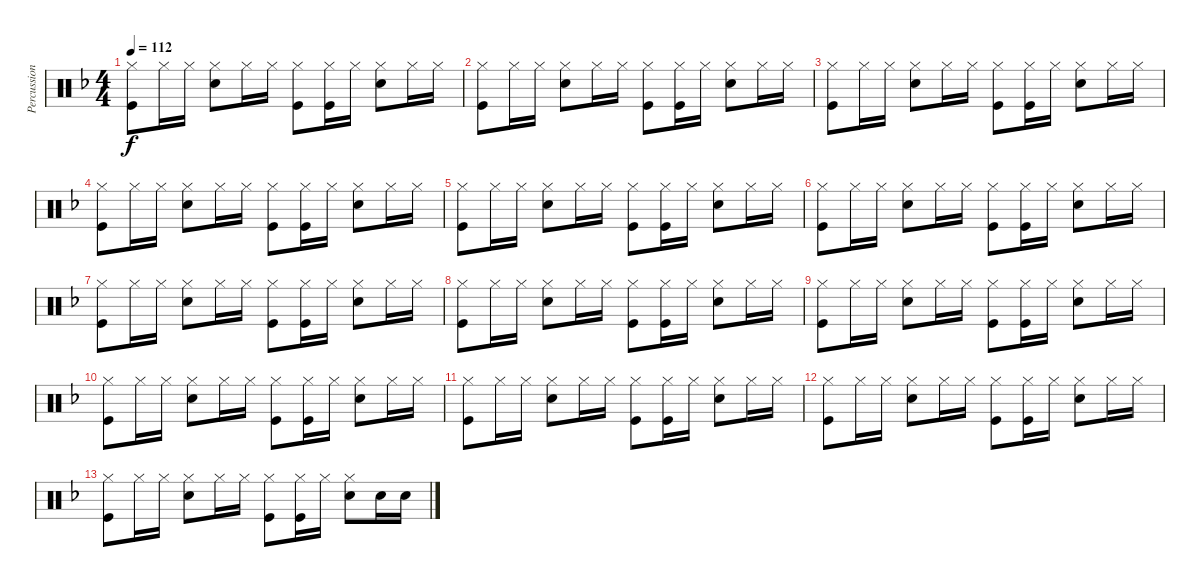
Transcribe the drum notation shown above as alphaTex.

\track ("Percussion" "Percussion") {instrument percussion}
\staff {score}
\articulation defaults
\ts (4 4)
\tempo 112
\clef neutral
\ks f
("Hi-Hat (closed)" "Kick (hit)").8{dy f} "Hi-Hat (closed)".16 "Hi-Hat (closed)".16 ("Hi-Hat (closed)" "Snare (hit) 2").8 "Hi-Hat (closed)".16 "Hi-Hat (closed)".16 ("Hi-Hat (closed)" "Kick (hit)").8 ("Hi-Hat (closed)" "Kick (hit)").16 "Hi-Hat (closed)".16 ("Hi-Hat (closed)" "Snare (hit) 2").8 "Hi-Hat (closed)".16 "Hi-Hat (closed)".16 |
("Hi-Hat (closed)" "Kick (hit)").8 "Hi-Hat (closed)".16 "Hi-Hat (closed)".16 ("Hi-Hat (closed)" "Snare (hit) 2").8 "Hi-Hat (closed)".16 "Hi-Hat (closed)".16 ("Hi-Hat (closed)" "Kick (hit)").8 ("Hi-Hat (closed)" "Kick (hit)").16 "Hi-Hat (closed)".16 ("Hi-Hat (closed)" "Snare (hit) 2").8 "Hi-Hat (closed)".16 "Hi-Hat (closed)".16 |
("Hi-Hat (closed)" "Kick (hit)").8 "Hi-Hat (closed)".16 "Hi-Hat (closed)".16 ("Hi-Hat (closed)" "Snare (hit) 2").8 "Hi-Hat (closed)".16 "Hi-Hat (closed)".16 ("Hi-Hat (closed)" "Kick (hit)").8 ("Hi-Hat (closed)" "Kick (hit)").16 "Hi-Hat (closed)".16 ("Hi-Hat (closed)" "Snare (hit) 2").8 "Hi-Hat (closed)".16 "Hi-Hat (closed)".16 |
("Hi-Hat (closed)" "Kick (hit)").8 "Hi-Hat (closed)".16 "Hi-Hat (closed)".16 ("Hi-Hat (closed)" "Snare (hit) 2").8 "Hi-Hat (closed)".16 "Hi-Hat (closed)".16 ("Hi-Hat (closed)" "Kick (hit)").8 ("Hi-Hat (closed)" "Kick (hit)").16 "Hi-Hat (closed)".16 ("Hi-Hat (closed)" "Snare (hit) 2").8 "Hi-Hat (closed)".16 "Hi-Hat (closed)".16 |
("Hi-Hat (closed)" "Kick (hit)").8 "Hi-Hat (closed)".16 "Hi-Hat (closed)".16 ("Hi-Hat (closed)" "Snare (hit) 2").8 "Hi-Hat (closed)".16 "Hi-Hat (closed)".16 ("Hi-Hat (closed)" "Kick (hit)").8 ("Hi-Hat (closed)" "Kick (hit)").16 "Hi-Hat (closed)".16 ("Hi-Hat (closed)" "Snare (hit) 2").8 "Hi-Hat (closed)".16 "Hi-Hat (closed)".16 |
("Hi-Hat (closed)" "Kick (hit)").8 "Hi-Hat (closed)".16 "Hi-Hat (closed)".16 ("Hi-Hat (closed)" "Snare (hit) 2").8 "Hi-Hat (closed)".16 "Hi-Hat (closed)".16 ("Hi-Hat (closed)" "Kick (hit)").8 ("Hi-Hat (closed)" "Kick (hit)").16 "Hi-Hat (closed)".16 ("Hi-Hat (closed)" "Snare (hit) 2").8 "Hi-Hat (closed)".16 "Hi-Hat (closed)".16 |
("Hi-Hat (closed)" "Kick (hit)").8 "Hi-Hat (closed)".16 "Hi-Hat (closed)".16 ("Hi-Hat (closed)" "Snare (hit) 2").8 "Hi-Hat (closed)".16 "Hi-Hat (closed)".16 ("Hi-Hat (closed)" "Kick (hit)").8 ("Hi-Hat (closed)" "Kick (hit)").16 "Hi-Hat (closed)".16 ("Hi-Hat (closed)" "Snare (hit) 2").8 "Hi-Hat (closed)".16 "Hi-Hat (closed)".16 |
("Hi-Hat (closed)" "Kick (hit)").8 "Hi-Hat (closed)".16 "Hi-Hat (closed)".16 ("Hi-Hat (closed)" "Snare (hit) 2").8 "Hi-Hat (closed)".16 "Hi-Hat (closed)".16 ("Hi-Hat (closed)" "Kick (hit)").8 ("Hi-Hat (closed)" "Kick (hit)").16 "Hi-Hat (closed)".16 ("Hi-Hat (closed)" "Snare (hit) 2").8 "Hi-Hat (closed)".16 "Hi-Hat (closed)".16 |
("Hi-Hat (closed)" "Kick (hit)").8 "Hi-Hat (closed)".16 "Hi-Hat (closed)".16 ("Hi-Hat (closed)" "Snare (hit) 2").8 "Hi-Hat (closed)".16 "Hi-Hat (closed)".16 ("Hi-Hat (closed)" "Kick (hit)").8 ("Hi-Hat (closed)" "Kick (hit)").16 "Hi-Hat (closed)".16 ("Hi-Hat (closed)" "Snare (hit) 2").8 "Hi-Hat (closed)".16 "Hi-Hat (closed)".16 |
("Hi-Hat (closed)" "Kick (hit)").8 "Hi-Hat (closed)".16 "Hi-Hat (closed)".16 ("Hi-Hat (closed)" "Snare (hit) 2").8 "Hi-Hat (closed)".16 "Hi-Hat (closed)".16 ("Hi-Hat (closed)" "Kick (hit)").8 ("Hi-Hat (closed)" "Kick (hit)").16 "Hi-Hat (closed)".16 ("Hi-Hat (closed)" "Snare (hit) 2").8 "Hi-Hat (closed)".16 "Hi-Hat (closed)".16 |
("Hi-Hat (closed)" "Kick (hit)").8 "Hi-Hat (closed)".16 "Hi-Hat (closed)".16 ("Hi-Hat (closed)" "Snare (hit) 2").8 "Hi-Hat (closed)".16 "Hi-Hat (closed)".16 ("Hi-Hat (closed)" "Kick (hit)").8 ("Hi-Hat (closed)" "Kick (hit)").16 "Hi-Hat (closed)".16 ("Hi-Hat (closed)" "Snare (hit) 2").8 "Hi-Hat (closed)".16 "Hi-Hat (closed)".16 |
("Hi-Hat (closed)" "Kick (hit)").8 "Hi-Hat (closed)".16 "Hi-Hat (closed)".16 ("Hi-Hat (closed)" "Snare (hit) 2").8 "Hi-Hat (closed)".16 "Hi-Hat (closed)".16 ("Hi-Hat (closed)" "Kick (hit)").8 ("Hi-Hat (closed)" "Kick (hit)").16 "Hi-Hat (closed)".16 ("Hi-Hat (closed)" "Snare (hit) 2").8 "Hi-Hat (closed)".16 "Hi-Hat (closed)".16 |
("Hi-Hat (closed)" "Kick (hit)").8 "Hi-Hat (closed)".16 "Hi-Hat (closed)".16 ("Hi-Hat (closed)" "Snare (hit) 2").8 "Hi-Hat (closed)".16 "Hi-Hat (closed)".16 ("Hi-Hat (closed)" "Kick (hit)").8 ("Hi-Hat (closed)" "Kick (hit)").16 "Hi-Hat (closed)".16 ("Hi-Hat (closed)" "Snare (hit) 2").8 "Snare (hit) 2".16 "Snare (hit) 2".16
